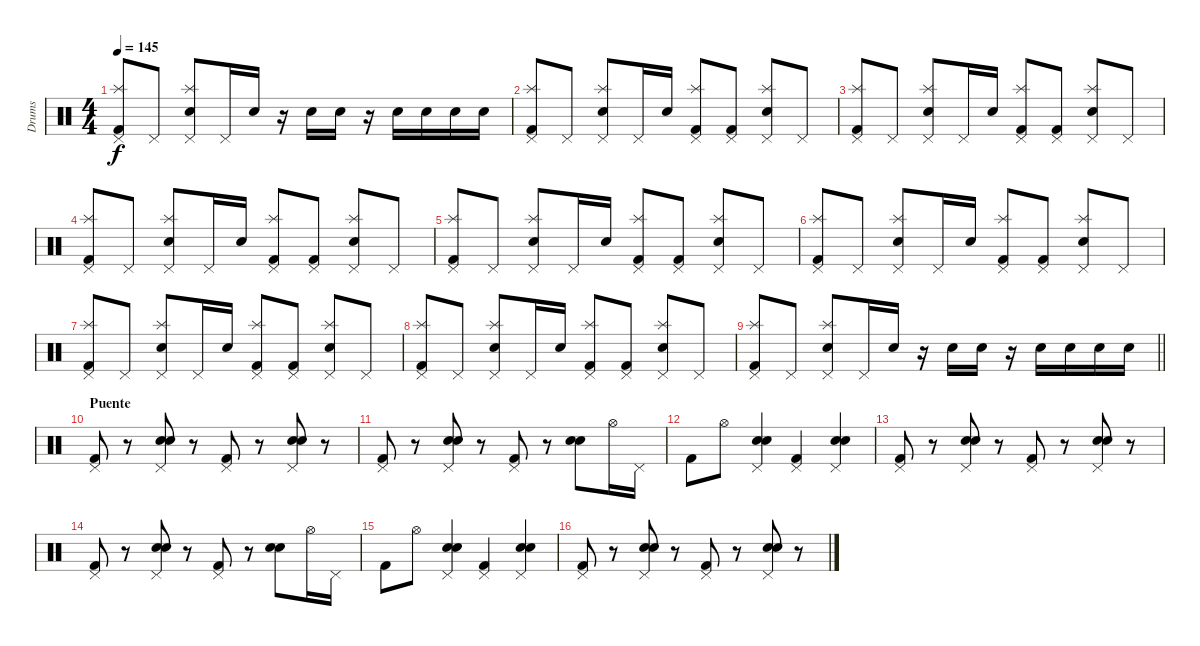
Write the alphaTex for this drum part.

\track ("Drums" "Drums") {instrument percussion}
\staff {score}
\articulation defaults
\ts (4 4)
\tempo 145
\clef neutral
\ks c
("Pedal Hi-Hat (hit)" "Splash (hit)" "Kick (hit) 2").8{dy f} "Pedal Hi-Hat (hit)".8 ("Pedal Hi-Hat (hit)" "Splash (hit)" "Electric Snare (hit)").8 "Pedal Hi-Hat (hit)".16 "Electric Snare (hit)".16 r.16 "Electric Snare (hit)".16 "Electric Snare (hit)".16 r.16 "Electric Snare (hit)".16 "Electric Snare (hit)".16 "Electric Snare (hit)".16 "Electric Snare (hit)".16 |
("Pedal Hi-Hat (hit)" "Splash (hit)" "Kick (hit) 2").8 "Pedal Hi-Hat (hit)".8 ("Pedal Hi-Hat (hit)" "Splash (hit)" "Electric Snare (hit)").8 "Pedal Hi-Hat (hit)".16 "Electric Snare (hit)".16 ("Pedal Hi-Hat (hit)" "Splash (hit)" "Kick (hit) 2").8 ("Pedal Hi-Hat (hit)" "Kick (hit) 2").8 ("Pedal Hi-Hat (hit)" "Splash (hit)" "Electric Snare (hit)").8 "Pedal Hi-Hat (hit)".8 |
("Pedal Hi-Hat (hit)" "Splash (hit)" "Kick (hit) 2").8 "Pedal Hi-Hat (hit)".8 ("Pedal Hi-Hat (hit)" "Splash (hit)" "Electric Snare (hit)").8 "Pedal Hi-Hat (hit)".16 "Electric Snare (hit)".16 ("Pedal Hi-Hat (hit)" "Splash (hit)" "Kick (hit) 2").8 ("Pedal Hi-Hat (hit)" "Kick (hit) 2").8 ("Pedal Hi-Hat (hit)" "Splash (hit)" "Electric Snare (hit)").8 "Pedal Hi-Hat (hit)".8 |
("Pedal Hi-Hat (hit)" "Splash (hit)" "Kick (hit) 2").8 "Pedal Hi-Hat (hit)".8 ("Pedal Hi-Hat (hit)" "Splash (hit)" "Electric Snare (hit)").8 "Pedal Hi-Hat (hit)".16 "Electric Snare (hit)".16 ("Pedal Hi-Hat (hit)" "Splash (hit)" "Kick (hit) 2").8 ("Pedal Hi-Hat (hit)" "Kick (hit) 2").8 ("Pedal Hi-Hat (hit)" "Splash (hit)" "Electric Snare (hit)").8 "Pedal Hi-Hat (hit)".8 |
("Pedal Hi-Hat (hit)" "Splash (hit)" "Kick (hit) 2").8 "Pedal Hi-Hat (hit)".8 ("Pedal Hi-Hat (hit)" "Splash (hit)" "Electric Snare (hit)").8 "Pedal Hi-Hat (hit)".16 "Electric Snare (hit)".16 ("Pedal Hi-Hat (hit)" "Splash (hit)" "Kick (hit) 2").8 ("Pedal Hi-Hat (hit)" "Kick (hit) 2").8 ("Pedal Hi-Hat (hit)" "Splash (hit)" "Electric Snare (hit)").8 "Pedal Hi-Hat (hit)".8 |
("Pedal Hi-Hat (hit)" "Splash (hit)" "Kick (hit) 2").8 "Pedal Hi-Hat (hit)".8 ("Pedal Hi-Hat (hit)" "Splash (hit)" "Electric Snare (hit)").8 "Pedal Hi-Hat (hit)".16 "Electric Snare (hit)".16 ("Pedal Hi-Hat (hit)" "Splash (hit)" "Kick (hit) 2").8 ("Pedal Hi-Hat (hit)" "Kick (hit) 2").8 ("Pedal Hi-Hat (hit)" "Splash (hit)" "Electric Snare (hit)").8 "Pedal Hi-Hat (hit)".8 |
("Pedal Hi-Hat (hit)" "Splash (hit)" "Kick (hit) 2").8 "Pedal Hi-Hat (hit)".8 ("Pedal Hi-Hat (hit)" "Splash (hit)" "Electric Snare (hit)").8 "Pedal Hi-Hat (hit)".16 "Electric Snare (hit)".16 ("Pedal Hi-Hat (hit)" "Splash (hit)" "Kick (hit) 2").8 ("Pedal Hi-Hat (hit)" "Kick (hit) 2").8 ("Pedal Hi-Hat (hit)" "Splash (hit)" "Electric Snare (hit)").8 "Pedal Hi-Hat (hit)".8 |
("Pedal Hi-Hat (hit)" "Splash (hit)" "Kick (hit) 2").8 "Pedal Hi-Hat (hit)".8 ("Pedal Hi-Hat (hit)" "Splash (hit)" "Electric Snare (hit)").8 "Pedal Hi-Hat (hit)".16 "Electric Snare (hit)".16 ("Pedal Hi-Hat (hit)" "Splash (hit)" "Kick (hit) 2").8 ("Pedal Hi-Hat (hit)" "Kick (hit) 2").8 ("Pedal Hi-Hat (hit)" "Splash (hit)" "Electric Snare (hit)").8 "Pedal Hi-Hat (hit)".8 |
\barLineRight lightlight
("Pedal Hi-Hat (hit)" "Splash (hit)" "Kick (hit) 2").8 "Pedal Hi-Hat (hit)".8 ("Pedal Hi-Hat (hit)" "Splash (hit)" "Electric Snare (hit)").8 "Pedal Hi-Hat (hit)".16 "Electric Snare (hit)".16 r.16 "Electric Snare (hit)".16 "Electric Snare (hit)".16 r.16 "Electric Snare (hit)".16 "Electric Snare (hit)".16 "Electric Snare (hit)".16 "Electric Snare (hit)".16 |
\section ("" "Puente")
("Pedal Hi-Hat (hit)" "Kick (hit) 2").8 r.8 ("Hand Clap (hit)" "Pedal Hi-Hat (hit)" "Electric Snare (hit)").8 r.8 ("Pedal Hi-Hat (hit)" "Kick (hit) 2").8 r.8 ("Hand Clap (hit)" "Pedal Hi-Hat (hit)" "Electric Snare (hit)").8 r.8 |
("Pedal Hi-Hat (hit)" "Kick (hit) 2").8 r.8 ("Hand Clap (hit)" "Pedal Hi-Hat (hit)" "Electric Snare (hit)").8 r.8 ("Pedal Hi-Hat (hit)" "Kick (hit) 2").8 r.8 ("Hand Clap (hit)" "Electric Snare (hit)").8 "Hi-Hat (open)".16 "Pedal Hi-Hat (hit)".16 |
"Kick (hit) 2".8 "Hi-Hat (open)".8 ("Hand Clap (hit)" "Pedal Hi-Hat (hit)" "Electric Snare (hit)").4 ("Pedal Hi-Hat (hit)" "Kick (hit) 2").4 ("Hand Clap (hit)" "Pedal Hi-Hat (hit)" "Electric Snare (hit)").4 |
("Pedal Hi-Hat (hit)" "Kick (hit) 2").8 r.8 ("Hand Clap (hit)" "Pedal Hi-Hat (hit)" "Electric Snare (hit)").8 r.8 ("Pedal Hi-Hat (hit)" "Kick (hit) 2").8 r.8 ("Hand Clap (hit)" "Pedal Hi-Hat (hit)" "Electric Snare (hit)").8 r.8 |
("Pedal Hi-Hat (hit)" "Kick (hit) 2").8 r.8 ("Hand Clap (hit)" "Pedal Hi-Hat (hit)" "Electric Snare (hit)").8 r.8 ("Pedal Hi-Hat (hit)" "Kick (hit) 2").8 r.8 ("Hand Clap (hit)" "Electric Snare (hit)").8 "Hi-Hat (open)".16 "Pedal Hi-Hat (hit)".16 |
"Kick (hit) 2".8 "Hi-Hat (open)".8 ("Hand Clap (hit)" "Pedal Hi-Hat (hit)" "Electric Snare (hit)").4 ("Pedal Hi-Hat (hit)" "Kick (hit) 2").4 ("Hand Clap (hit)" "Pedal Hi-Hat (hit)" "Electric Snare (hit)").4 |
("Pedal Hi-Hat (hit)" "Kick (hit) 2").8 r.8 ("Hand Clap (hit)" "Pedal Hi-Hat (hit)" "Electric Snare (hit)").8 r.8 ("Pedal Hi-Hat (hit)" "Kick (hit) 2").8 r.8 ("Hand Clap (hit)" "Pedal Hi-Hat (hit)" "Electric Snare (hit)").8 r.8
